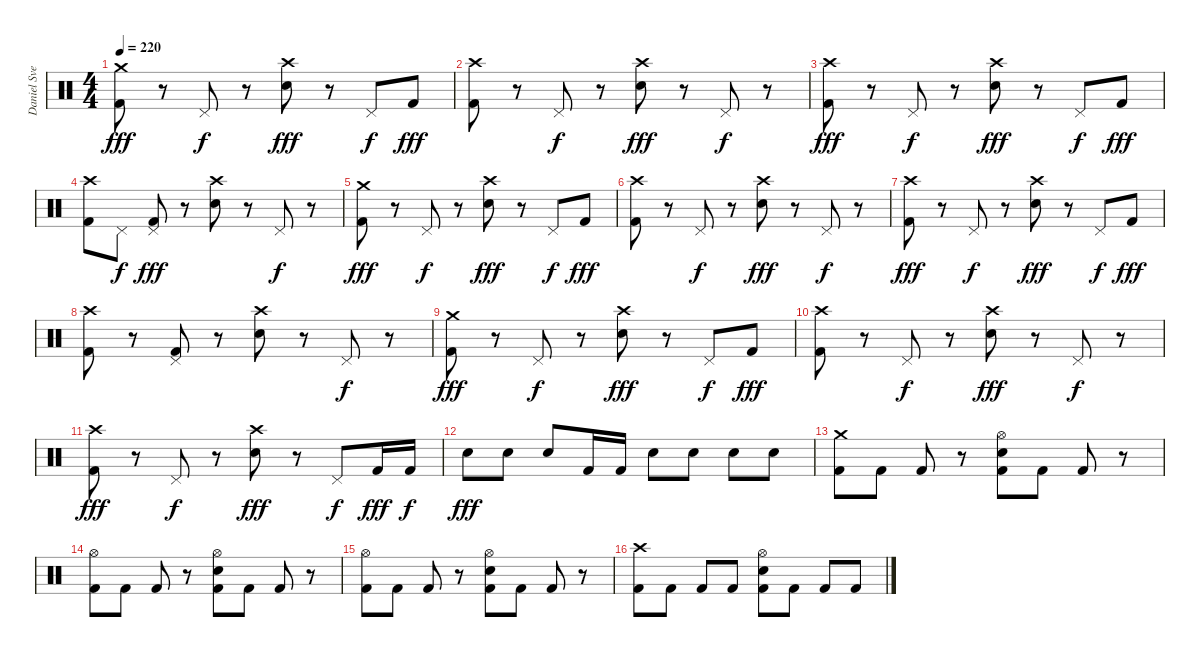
\track ("Daniel Svensson" "Daniel Sve") {instrument percussion}
\staff {score}
\articulation defaults
\ts (4 4)
\tempo 220
\clef neutral
\ks c
("Crash medium (hit)" "Kick (hit) 2").8{dy fff} r.8 "Pedal Hi-Hat (hit)".8{dy f} r.8 ("Crash high (hit)" "Electric Snare (hit)").8{dy fff} r.8 "Pedal Hi-Hat (hit)".8{dy f} "Kick (hit) 2".8{dy fff} |
("Crash high (hit)" "Kick (hit) 2").8 r.8 "Pedal Hi-Hat (hit)".8{dy f} r.8 ("Crash high (hit)" "Electric Snare (hit)").8{dy fff} r.8 "Pedal Hi-Hat (hit)".8{dy f} r.8 |
("Crash high (hit)" "Kick (hit) 2").8{dy fff} r.8 "Pedal Hi-Hat (hit)".8{dy f} r.8 ("Crash high (hit)" "Electric Snare (hit)").8{dy fff} r.8 "Pedal Hi-Hat (hit)".8{dy f} "Kick (hit) 2".8{dy fff} |
("Crash high (hit)" "Kick (hit) 2").8 "Pedal Hi-Hat (hit)".8{dy f} ("Pedal Hi-Hat (hit)" "Kick (hit) 2").8{dy fff} r.8 ("Crash high (hit)" "Electric Snare (hit)").8 r.8 "Pedal Hi-Hat (hit)".8{dy f} r.8 |
("Crash medium (hit)" "Kick (hit) 2").8{dy fff} r.8 "Pedal Hi-Hat (hit)".8{dy f} r.8 ("Crash high (hit)" "Electric Snare (hit)").8{dy fff} r.8 "Pedal Hi-Hat (hit)".8{dy f} "Kick (hit) 2".8{dy fff} |
("Crash high (hit)" "Kick (hit) 2").8 r.8 "Pedal Hi-Hat (hit)".8{dy f} r.8 ("Crash high (hit)" "Electric Snare (hit)").8{dy fff} r.8 "Pedal Hi-Hat (hit)".8{dy f} r.8 |
("Crash high (hit)" "Kick (hit) 2").8{dy fff} r.8 "Pedal Hi-Hat (hit)".8{dy f} r.8 ("Crash high (hit)" "Electric Snare (hit)").8{dy fff} r.8 "Pedal Hi-Hat (hit)".8{dy f} "Kick (hit) 2".8{dy fff} |
("Crash high (hit)" "Kick (hit) 2").8 r.8 ("Pedal Hi-Hat (hit)" "Kick (hit) 2").8 r.8 ("Crash high (hit)" "Electric Snare (hit)").8 r.8 "Pedal Hi-Hat (hit)".8{dy f} r.8 |
("Crash medium (hit)" "Kick (hit) 2").8{dy fff} r.8 "Pedal Hi-Hat (hit)".8{dy f} r.8 ("Crash high (hit)" "Electric Snare (hit)").8{dy fff} r.8 "Pedal Hi-Hat (hit)".8{dy f} "Kick (hit) 2".8{dy fff} |
("Crash high (hit)" "Kick (hit) 2").8 r.8 "Pedal Hi-Hat (hit)".8{dy f} r.8 ("Crash high (hit)" "Electric Snare (hit)").8{dy fff} r.8 "Pedal Hi-Hat (hit)".8{dy f} r.8 |
("Crash high (hit)" "Kick (hit) 2").8{dy fff} r.8 "Pedal Hi-Hat (hit)".8{dy f} r.8 ("Crash high (hit)" "Electric Snare (hit)").8{dy fff} r.8 "Pedal Hi-Hat (hit)".8{dy f} "Kick (hit) 2".16{dy fff} "Kick (hit) 2".16{dy f} |
"Electric Snare (hit)".8{dy fff} "Electric Snare (hit)".8 "Electric Snare (hit)".8 "Kick (hit) 2".16 "Kick (hit) 2".16 "Electric Snare (hit)".8 "Electric Snare (hit)".8 "Electric Snare (hit)".8 "Electric Snare (hit)".8 |
("Crash medium (hit)" "Kick (hit) 2").8 "Kick (hit) 2".8 "Kick (hit) 2".8 r.8 ("Hi-Hat (open)" "Electric Snare (hit)" "Kick (hit) 2").8 "Kick (hit) 2".8 "Kick (hit) 2".8 r.8 |
("Hi-Hat (open)" "Kick (hit) 2").8 "Kick (hit) 2".8 "Kick (hit) 2".8 r.8 ("Hi-Hat (open)" "Electric Snare (hit)" "Kick (hit) 2").8 "Kick (hit) 2".8 "Kick (hit) 2".8 r.8 |
("Hi-Hat (open)" "Kick (hit) 2").8 "Kick (hit) 2".8 "Kick (hit) 2".8 r.8 ("Hi-Hat (open)" "Electric Snare (hit)" "Kick (hit) 2").8 "Kick (hit) 2".8 "Kick (hit) 2".8 r.8 |
("Crash high (hit)" "Kick (hit) 2").8 "Kick (hit) 2".8 "Kick (hit) 2".8 "Kick (hit) 2".8 ("Hi-Hat (open)" "Electric Snare (hit)" "Kick (hit) 2").8 "Kick (hit) 2".8 "Kick (hit) 2".8 "Kick (hit) 2".8
